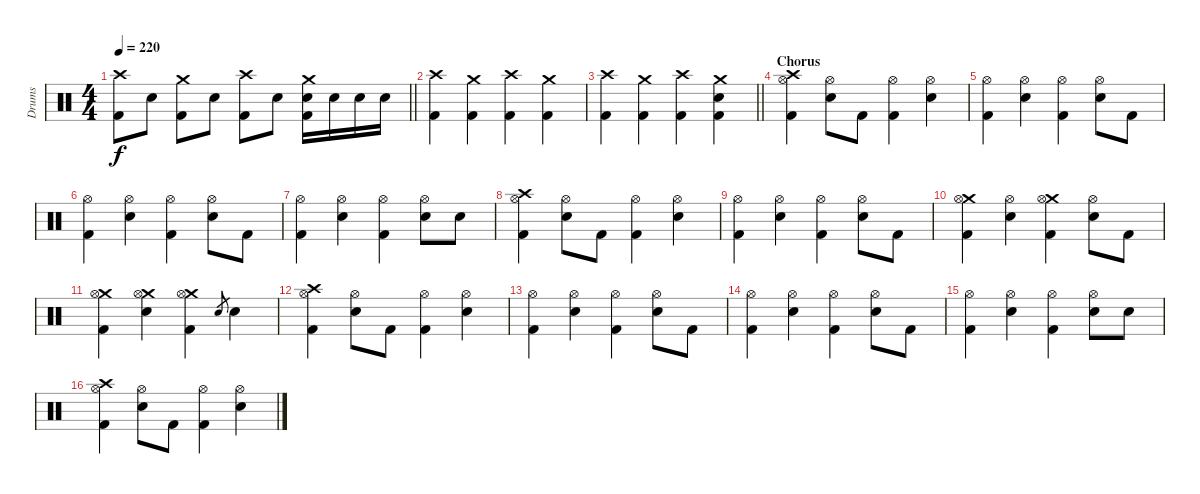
\track ("Drums" "Drums") {instrument percussion}
\staff {score}
\articulation defaults
\ts (4 4)
\tempo 220
\clef neutral
\barLineRight lightlight
\ks c
("Crash high (hit)" "Kick (hit) 2").8{dy f} "Snare (hit) 2".8 ("Crash medium (hit)" "Kick (hit) 2").8 "Snare (hit) 2".8 ("Crash high (hit)" "Kick (hit) 2").8 "Snare (hit) 2".8 ("Crash medium (hit)" "Snare (hit) 2" "Kick (hit) 2").16 "Snare (hit) 2".16 "Snare (hit) 2".16 "Snare (hit) 2".16 |
("Crash high (hit)" "Kick (hit) 2").4 ("Crash medium (hit)" "Kick (hit) 2").4 ("Crash high (hit)" "Kick (hit) 2").4 ("Crash medium (hit)" "Kick (hit) 2").4 |
\barLineRight lightlight
("Crash high (hit)" "Kick (hit) 2").4 ("Crash medium (hit)" "Kick (hit) 2").4 ("Crash high (hit)" "Kick (hit) 2").4 ("Crash medium (hit)" "Snare (hit) 2" "Kick (hit) 2").4 |
\section ("" "Chorus")
("Crash high (hit)" "Hi-Hat (open)" "Kick (hit) 2").4 ("Hi-Hat (open)" "Snare (hit) 2").8 "Kick (hit) 2".8 ("Hi-Hat (open)" "Kick (hit) 2").4 ("Hi-Hat (open)" "Snare (hit) 2").4 |
("Hi-Hat (open)" "Kick (hit) 2").4 ("Hi-Hat (open)" "Snare (hit) 2").4 ("Hi-Hat (open)" "Kick (hit) 2").4 ("Hi-Hat (open)" "Snare (hit) 2").8 "Kick (hit) 2".8 |
("Hi-Hat (open)" "Kick (hit) 2").4 ("Hi-Hat (open)" "Snare (hit) 2").4 ("Hi-Hat (open)" "Kick (hit) 2").4 ("Hi-Hat (open)" "Snare (hit) 2").8 "Kick (hit) 2".8 |
("Hi-Hat (open)" "Kick (hit) 2").4 ("Hi-Hat (open)" "Snare (hit) 2").4 ("Hi-Hat (open)" "Kick (hit) 2").4 ("Hi-Hat (open)" "Snare (hit) 2").8 "Snare (hit) 2".8 |
("Crash high (hit)" "Hi-Hat (open)" "Kick (hit) 2").4 ("Hi-Hat (open)" "Snare (hit) 2").8 "Kick (hit) 2".8 ("Hi-Hat (open)" "Kick (hit) 2").4 ("Hi-Hat (open)" "Snare (hit) 2").4 |
("Hi-Hat (open)" "Kick (hit) 2").4 ("Hi-Hat (open)" "Snare (hit) 2").4 ("Hi-Hat (open)" "Kick (hit) 2").4 ("Hi-Hat (open)" "Snare (hit) 2").8 "Kick (hit) 2".8 |
("Crash medium (hit)" "Hi-Hat (open)" "Kick (hit) 2").4 ("Hi-Hat (open)" "Snare (hit) 2").4 ("Crash medium (hit)" "Hi-Hat (open)" "Kick (hit) 2").4 ("Hi-Hat (open)" "Snare (hit) 2").8 "Kick (hit) 2".8 |
("Crash medium (hit)" "Hi-Hat (open)" "Kick (hit) 2").4 ("Crash medium (hit)" "Hi-Hat (open)" "Snare (hit) 2").4 ("Crash medium (hit)" "Hi-Hat (open)" "Kick (hit) 2").4 "Snare (hit) 2".8{gr} "Snare (hit) 2".4 |
("Crash high (hit)" "Hi-Hat (open)" "Kick (hit) 2").4 ("Hi-Hat (open)" "Snare (hit) 2").8 "Kick (hit) 2".8 ("Hi-Hat (open)" "Kick (hit) 2").4 ("Hi-Hat (open)" "Snare (hit) 2").4 |
("Hi-Hat (open)" "Kick (hit) 2").4 ("Hi-Hat (open)" "Snare (hit) 2").4 ("Hi-Hat (open)" "Kick (hit) 2").4 ("Hi-Hat (open)" "Snare (hit) 2").8 "Kick (hit) 2".8 |
("Hi-Hat (open)" "Kick (hit) 2").4 ("Hi-Hat (open)" "Snare (hit) 2").4 ("Hi-Hat (open)" "Kick (hit) 2").4 ("Hi-Hat (open)" "Snare (hit) 2").8 "Kick (hit) 2".8 |
("Hi-Hat (open)" "Kick (hit) 2").4 ("Hi-Hat (open)" "Snare (hit) 2").4 ("Hi-Hat (open)" "Kick (hit) 2").4 ("Hi-Hat (open)" "Snare (hit) 2").8 "Snare (hit) 2".8 |
("Crash high (hit)" "Hi-Hat (open)" "Kick (hit) 2").4 ("Hi-Hat (open)" "Snare (hit) 2").8 "Kick (hit) 2".8 ("Hi-Hat (open)" "Kick (hit) 2").4 ("Hi-Hat (open)" "Snare (hit) 2").4
